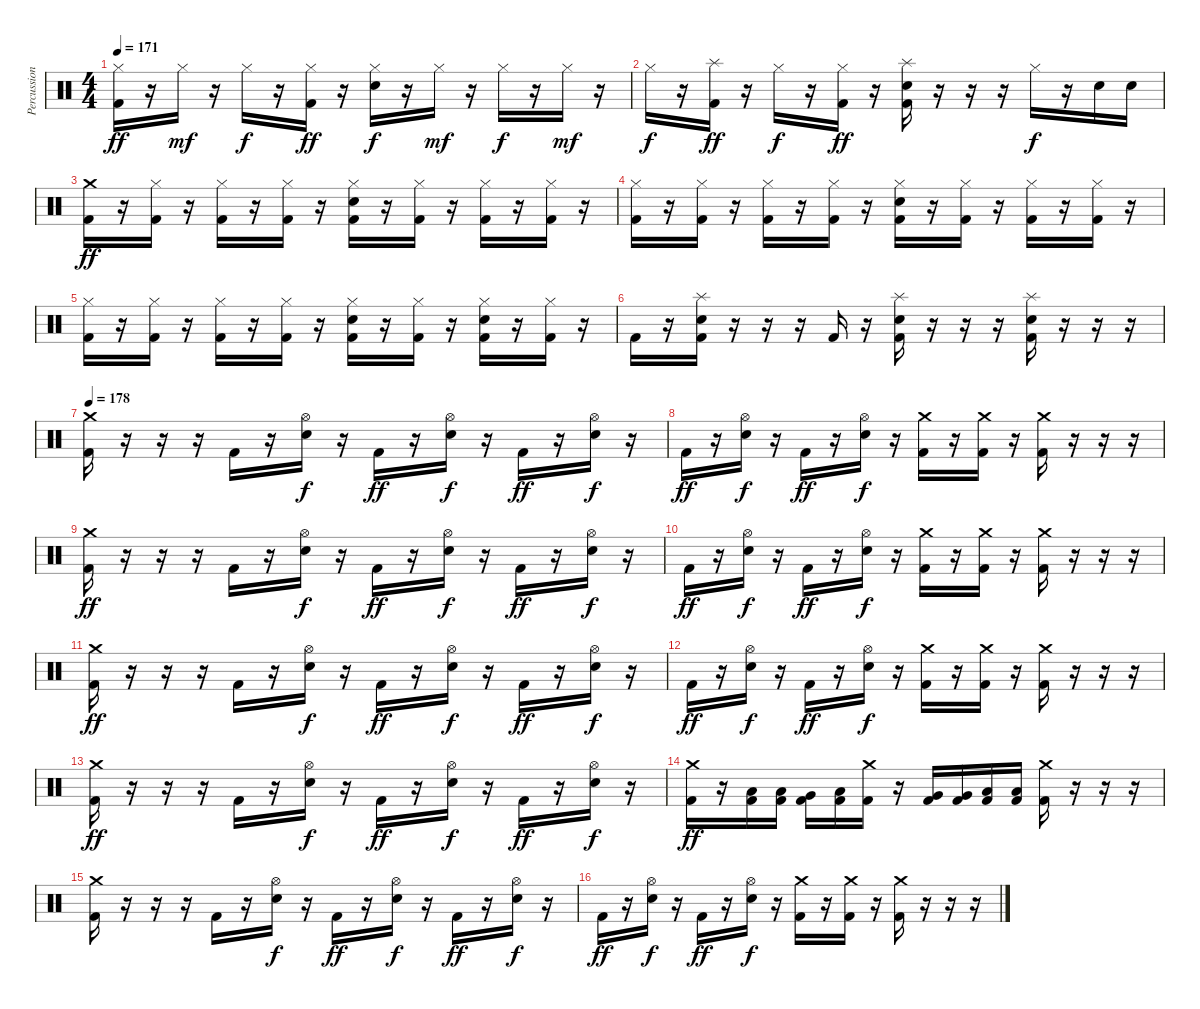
\track ("Percussion" "Percussion") {instrument percussion}
\staff {score}
\articulation defaults
\ts (4 4)
\tempo 171
\clef neutral
\ks c
("Hi-Hat (closed)" "Kick (hit) 2").16{dy ff} r.16 "Hi-Hat (closed)".16{dy mf} r.16 "Hi-Hat (closed)".16{dy f} r.16 ("Hi-Hat (closed)" "Kick (hit) 2").16{dy ff} r.16 ("Hi-Hat (closed)" "Electric Snare (hit)").16{dy f} r.16 "Hi-Hat (closed)".16{dy mf} r.16 "Hi-Hat (closed)".16{dy f} r.16 "Hi-Hat (closed)".16{dy mf} r.16 |
"Hi-Hat (closed)".16{dy f} r.16 ("Splash (hit)" "Kick (hit) 2").16{dy ff} r.16 "Hi-Hat (closed)".16{dy f} r.16 ("Hi-Hat (closed)" "Kick (hit) 2").16{dy ff} r.16 ("Splash (hit)" "Electric Snare (hit)" "Kick (hit) 2").16 r.16 r.16 r.16 "Hi-Hat (closed)".16{dy f} r.16 "Electric Snare (hit)".16 "Electric Snare (hit)".16 |
("Crash medium (hit)" "Kick (hit) 2").16{dy ff} r.16 ("Hi-Hat (closed)" "Kick (hit) 2").16 r.16 ("Hi-Hat (closed)" "Kick (hit) 2").16 r.16 ("Hi-Hat (closed)" "Kick (hit) 2").16 r.16 ("Hi-Hat (closed)" "Electric Snare (hit)" "Kick (hit) 2").16 r.16 ("Hi-Hat (closed)" "Kick (hit) 2").16 r.16 ("Hi-Hat (closed)" "Kick (hit) 2").16 r.16 ("Hi-Hat (closed)" "Kick (hit) 2").16 r.16 |
("Hi-Hat (closed)" "Kick (hit) 2").16 r.16 ("Hi-Hat (closed)" "Kick (hit) 2").16 r.16 ("Hi-Hat (closed)" "Kick (hit) 2").16 r.16 ("Hi-Hat (closed)" "Kick (hit) 2").16 r.16 ("Hi-Hat (closed)" "Electric Snare (hit)" "Kick (hit) 2").16 r.16 ("Hi-Hat (closed)" "Kick (hit) 2").16 r.16 ("Hi-Hat (closed)" "Kick (hit) 2").16 r.16 ("Hi-Hat (closed)" "Kick (hit) 2").16 r.16 |
("Hi-Hat (closed)" "Kick (hit) 2").16 r.16 ("Hi-Hat (closed)" "Kick (hit) 2").16 r.16 ("Hi-Hat (closed)" "Kick (hit) 2").16 r.16 ("Hi-Hat (closed)" "Kick (hit) 2").16 r.16 ("Hi-Hat (closed)" "Electric Snare (hit)" "Kick (hit) 2").16 r.16 ("Hi-Hat (closed)" "Kick (hit) 2").16 r.16 ("Hi-Hat (closed)" "Electric Snare (hit)" "Kick (hit) 2").16 r.16 ("Hi-Hat (closed)" "Kick (hit) 2").16 r.16 |
"Kick (hit) 2".16 r.16 ("Splash (hit)" "Electric Snare (hit)" "Kick (hit) 2").16 r.16 r.16 r.16 "Kick (hit) 2".16 r.16 ("Splash (hit)" "Electric Snare (hit)" "Kick (hit) 2").16 r.16 r.16 r.16 ("Splash (hit)" "Electric Snare (hit)" "Kick (hit) 2").16 r.16 r.16 r.16 |
\tempo 178
("Crash medium (hit)" "Kick (hit) 2").16 r.16 r.16 r.16 "Kick (hit) 2".16 r.16 ("Hi-Hat (open)" "Electric Snare (hit)").16{dy f} r.16 "Kick (hit) 2".16{dy ff} r.16 ("Hi-Hat (open)" "Electric Snare (hit)").16{dy f} r.16 "Kick (hit) 2".16{dy ff} r.16 ("Hi-Hat (open)" "Electric Snare (hit)").16{dy f} r.16 |
"Kick (hit) 2".16{dy ff} r.16 ("Hi-Hat (open)" "Electric Snare (hit)").16{dy f} r.16 "Kick (hit) 2".16{dy ff} r.16 ("Hi-Hat (open)" "Electric Snare (hit)").16{dy f} r.16 ("Crash medium (hit)" "Kick (hit) 2").16 r.16 ("Crash medium (hit)" "Kick (hit) 2").16 r.16 ("Crash medium (hit)" "Kick (hit) 2").16 r.16 r.16 r.16 |
("Crash medium (hit)" "Kick (hit) 2").16{dy ff} r.16 r.16 r.16 "Kick (hit) 2".16 r.16 ("Hi-Hat (open)" "Electric Snare (hit)").16{dy f} r.16 "Kick (hit) 2".16{dy ff} r.16 ("Hi-Hat (open)" "Electric Snare (hit)").16{dy f} r.16 "Kick (hit) 2".16{dy ff} r.16 ("Hi-Hat (open)" "Electric Snare (hit)").16{dy f} r.16 |
"Kick (hit) 2".16{dy ff} r.16 ("Hi-Hat (open)" "Electric Snare (hit)").16{dy f} r.16 "Kick (hit) 2".16{dy ff} r.16 ("Hi-Hat (open)" "Electric Snare (hit)").16{dy f} r.16 ("Crash medium (hit)" "Kick (hit) 2").16 r.16 ("Crash medium (hit)" "Kick (hit) 2").16 r.16 ("Crash medium (hit)" "Kick (hit) 2").16 r.16 r.16 r.16 |
("Crash medium (hit)" "Kick (hit) 2").16{dy ff} r.16 r.16 r.16 "Kick (hit) 2".16 r.16 ("Hi-Hat (open)" "Electric Snare (hit)").16{dy f} r.16 "Kick (hit) 2".16{dy ff} r.16 ("Hi-Hat (open)" "Electric Snare (hit)").16{dy f} r.16 "Kick (hit) 2".16{dy ff} r.16 ("Hi-Hat (open)" "Electric Snare (hit)").16{dy f} r.16 |
"Kick (hit) 2".16{dy ff} r.16 ("Hi-Hat (open)" "Electric Snare (hit)").16{dy f} r.16 "Kick (hit) 2".16{dy ff} r.16 ("Hi-Hat (open)" "Electric Snare (hit)").16{dy f} r.16 ("Crash medium (hit)" "Kick (hit) 2").16 r.16 ("Crash medium (hit)" "Kick (hit) 2").16 r.16 ("Crash medium (hit)" "Kick (hit) 2").16 r.16 r.16 r.16 |
("Crash medium (hit)" "Kick (hit) 2").16{dy ff} r.16 r.16 r.16 "Kick (hit) 2".16 r.16 ("Hi-Hat (open)" "Electric Snare (hit)").16{dy f} r.16 "Kick (hit) 2".16{dy ff} r.16 ("Hi-Hat (open)" "Electric Snare (hit)").16{dy f} r.16 "Kick (hit) 2".16{dy ff} r.16 ("Hi-Hat (open)" "Electric Snare (hit)").16{dy f} r.16 |
("Crash medium (hit)" "Kick (hit) 2").16{dy ff} r.16 ("Low Tom (hit)" "Kick (hit) 2").16 ("Low Tom (hit)" "Kick (hit) 2").16 ("Very Low Tom (hit)" "Kick (hit) 2").16 ("Low Tom (hit)" "Kick (hit) 2").16 ("Crash medium (hit)" "Kick (hit) 2").16 r.16 ("Very Low Tom (hit)" "Kick (hit) 2").16 ("Very Low Tom (hit)" "Kick (hit) 2").16 ("Low Floor Tom (hit)" "Kick (hit) 2").16 ("Low Floor Tom (hit)" "Kick (hit) 2").16 ("Crash medium (hit)" "Kick (hit) 2").16 r.16 r.16 r.16 |
("Crash medium (hit)" "Kick (hit) 2").16 r.16 r.16 r.16 "Kick (hit) 2".16 r.16 ("Hi-Hat (open)" "Electric Snare (hit)").16{dy f} r.16 "Kick (hit) 2".16{dy ff} r.16 ("Hi-Hat (open)" "Electric Snare (hit)").16{dy f} r.16 "Kick (hit) 2".16{dy ff} r.16 ("Hi-Hat (open)" "Electric Snare (hit)").16{dy f} r.16 |
"Kick (hit) 2".16{dy ff} r.16 ("Hi-Hat (open)" "Electric Snare (hit)").16{dy f} r.16 "Kick (hit) 2".16{dy ff} r.16 ("Hi-Hat (open)" "Electric Snare (hit)").16{dy f} r.16 ("Crash medium (hit)" "Kick (hit) 2").16 r.16 ("Crash medium (hit)" "Kick (hit) 2").16 r.16 ("Crash medium (hit)" "Kick (hit) 2").16 r.16 r.16 r.16
